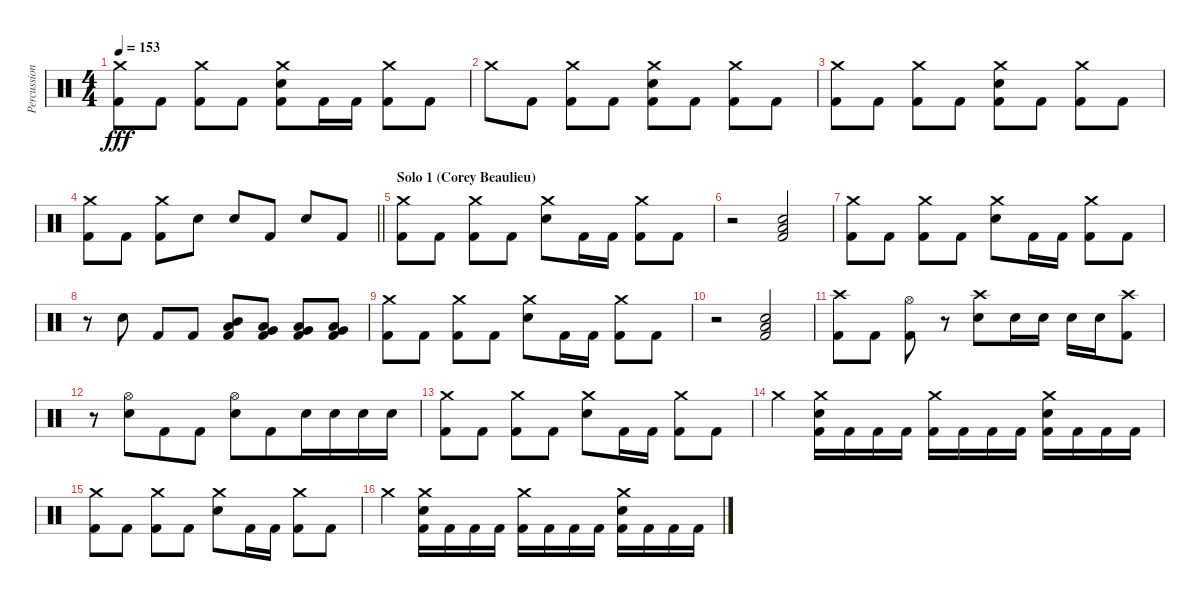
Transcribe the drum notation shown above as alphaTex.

\track ("Percussion" "Percussion") {instrument percussion}
\staff {score}
\articulation defaults
\ts (4 4)
\tempo 153
\clef neutral
\ks c
("Crash medium (hit)" "Kick (hit) 2").8{dy fff} "Kick (hit) 2".8 ("Crash medium (hit)" "Kick (hit) 2").8 "Kick (hit) 2".8 ("Crash medium (hit)" "Snare (hit) 2" "Kick (hit) 2").8 "Kick (hit) 2".16 "Kick (hit) 2".16 ("Crash medium (hit)" "Kick (hit) 2").8 "Kick (hit) 2".8 |
"Crash medium (hit)".8 "Kick (hit) 2".8 ("Crash medium (hit)" "Kick (hit) 2").8 "Kick (hit) 2".8 ("Crash medium (hit)" "Snare (hit) 2" "Kick (hit) 2").8 "Kick (hit) 2".8 ("Crash medium (hit)" "Kick (hit) 2").8 "Kick (hit) 2".8 |
("Crash medium (hit)" "Kick (hit) 2").8 "Kick (hit) 2".8 ("Crash medium (hit)" "Kick (hit) 2").8 "Kick (hit) 2".8 ("Crash medium (hit)" "Snare (hit) 2" "Kick (hit) 2").8 "Kick (hit) 2".8 ("Crash medium (hit)" "Kick (hit) 2").8 "Kick (hit) 2".8 |
\barLineRight lightlight
("Crash medium (hit)" "Kick (hit) 2").8 "Kick (hit) 2".8 ("Crash medium (hit)" "Kick (hit) 2").8 "Snare (hit) 2".8 "Snare (hit) 2".8 "Kick (hit) 2".8 "Snare (hit) 2".8 "Kick (hit) 2".8 |
\section ("" "Solo 1 (Corey Beaulieu)")
("Crash medium (hit)" "Kick (hit) 2").8 "Kick (hit) 2".8 ("Crash medium (hit)" "Kick (hit) 2").8 "Kick (hit) 2".8 ("Crash medium (hit)" "Snare (hit) 2").8 "Kick (hit) 2".16 "Kick (hit) 2".16 ("Crash medium (hit)" "Kick (hit) 2").8 "Kick (hit) 2".8 |
r.2 ("Low Floor Tom (hit)" "Kick (hit) 2" "Snare (hit) 2").2 |
("Crash medium (hit)" "Kick (hit) 2").8 "Kick (hit) 2".8 ("Crash medium (hit)" "Kick (hit) 2").8 "Kick (hit) 2".8 ("Crash medium (hit)" "Snare (hit) 2").8 "Kick (hit) 2".16 "Kick (hit) 2".16 ("Crash medium (hit)" "Kick (hit) 2").8 "Kick (hit) 2".8 |
r.8 "Snare (hit) 2".8 "Kick (hit) 2".8 "Kick (hit) 2".8 ("Mid Tom (hit)" "Low Tom (hit)" "Kick (hit) 2").8 ("Low Tom (hit)" "Kick (hit) 2" "Very Low Tom (hit)").8 ("Low Tom (hit)" "Very Low Tom (hit)" "Kick (hit) 2").8 ("Very Low Tom (hit)" "Kick (hit) 2" "Low Floor Tom (hit)").8 |
("Crash medium (hit)" "Kick (hit) 2").8 "Kick (hit) 2".8 ("Crash medium (hit)" "Kick (hit) 2").8 "Kick (hit) 2".8 ("Crash medium (hit)" "Snare (hit) 2").8 "Kick (hit) 2".16 "Kick (hit) 2".16 ("Crash medium (hit)" "Kick (hit) 2").8 "Kick (hit) 2".8 |
r.2 ("Low Floor Tom (hit)" "Kick (hit) 2" "Snare (hit) 2").2 |
("Crash high (hit)" "Kick (hit) 2").8 "Kick (hit) 2".8 ("Hi-Hat (open)" "Kick (hit) 2").8 r.8{beam merge} ("Crash high (hit)" "Snare (hit) 2").8 "Snare (hit) 2".16 "Snare (hit) 2".16 "Snare (hit) 2".16{beam merge} "Snare (hit) 2".16 ("Crash high (hit)" "Kick (hit) 2").8 |
r.8 ("Hi-Hat (open)" "Snare (hit) 2").8{beam merge} "Kick (hit) 2".8{beam merge} "Kick (hit) 2".8 ("Hi-Hat (open)" "Snare (hit) 2").8{beam merge} "Kick (hit) 2".8{beam merge} "Snare (hit) 2".16 "Snare (hit) 2".16{beam merge} "Snare (hit) 2".16 "Snare (hit) 2".16 |
("Crash medium (hit)" "Kick (hit) 2").8 "Kick (hit) 2".8 ("Crash medium (hit)" "Kick (hit) 2").8 "Kick (hit) 2".8 ("Crash medium (hit)" "Snare (hit) 2").8 "Kick (hit) 2".16 "Kick (hit) 2".16 ("Crash medium (hit)" "Kick (hit) 2").8 "Kick (hit) 2".8 |
"Crash medium (hit)".4 ("Crash medium (hit)" "Snare (hit) 2" "Kick (hit) 2").16 "Kick (hit) 2".16 "Kick (hit) 2".16 "Kick (hit) 2".16 ("Crash medium (hit)" "Kick (hit) 2").16 "Kick (hit) 2".16 "Kick (hit) 2".16 "Kick (hit) 2".16 ("Crash medium (hit)" "Snare (hit) 2" "Kick (hit) 2").16 "Kick (hit) 2".16 "Kick (hit) 2".16 "Kick (hit) 2".16 |
("Crash medium (hit)" "Kick (hit) 2").8 "Kick (hit) 2".8 ("Crash medium (hit)" "Kick (hit) 2").8 "Kick (hit) 2".8 ("Crash medium (hit)" "Snare (hit) 2").8 "Kick (hit) 2".16 "Kick (hit) 2".16 ("Crash medium (hit)" "Kick (hit) 2").8 "Kick (hit) 2".8 |
"Crash medium (hit)".4 ("Crash medium (hit)" "Snare (hit) 2" "Kick (hit) 2").16 "Kick (hit) 2".16 "Kick (hit) 2".16 "Kick (hit) 2".16 ("Crash medium (hit)" "Kick (hit) 2").16 "Kick (hit) 2".16 "Kick (hit) 2".16 "Kick (hit) 2".16 ("Crash medium (hit)" "Snare (hit) 2" "Kick (hit) 2").16 "Kick (hit) 2".16 "Kick (hit) 2".16 "Kick (hit) 2".16
